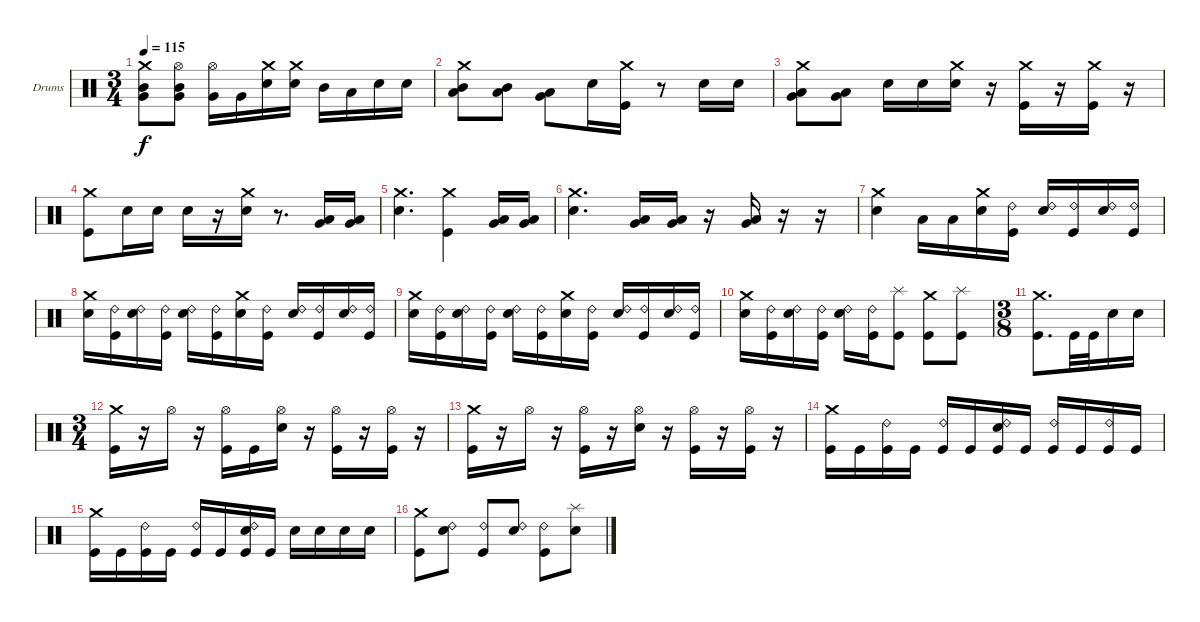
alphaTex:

\bracketExtendMode groupsimilarinstruments
\firstSystemTrackNameOrientation horizontal
\otherSystemsTrackNameOrientation horizontal
\track ("Drumkit" "Drums") {instrument percussion}
\staff {score}
\articulation defaults
\ts (3 4)
\tempo 115
\clef neutral
\ks c
("Crash medium (hit)" "Mid Tom (hit)" "Very Low Tom (hit)").8{dy f} ("Hi-Hat (open)" "Mid Tom (hit)" "Very Low Tom (hit)").8 ("Hi-Hat (open)" "Very Low Tom (hit)").16 "Very Low Tom (hit)".16 ("Crash medium (hit)" "Snare (hit) 2").16 ("Crash medium (hit)" "Snare (hit) 2").16 "Mid Tom (hit)".16 "Low Tom (hit)".16 "Snare (hit) 2".16 "Snare (hit) 2".16 |
("Crash medium (hit)" "Mid Tom (hit)" "Low Tom (hit)").8 ("Mid Tom (hit)" "Low Tom (hit)").8 ("Low Tom (hit)" "Very Low Tom (hit)").8 "Snare (hit) 2".16 ("Crash medium (hit)" "Kick (hit)").16 r.8 "Snare (hit) 2".16 "Snare (hit) 2".16 |
("Crash medium (hit)" "Low Tom (hit)" "Very Low Tom (hit)").8 ("Low Tom (hit)" "Very Low Tom (hit)").8 "Snare (hit) 2".16 "Snare (hit) 2".16 ("Crash medium (hit)" "Snare (hit) 2").16 r.16 ("Crash medium (hit)" "Kick (hit)").16 r.16 ("Crash medium (hit)" "Kick (hit)").16 r.16 |
("Crash medium (hit)" "Kick (hit)").8 "Snare (hit) 2".16 "Snare (hit) 2".16 "Snare (hit) 2".16 r.16 ("Crash medium (hit)" "Snare (hit) 2").16 r.8{d} ("Low Tom (hit)" "Very Low Tom (hit)").16 ("Low Tom (hit)" "Very Low Tom (hit)").16 |
("Crash medium (hit)" "Snare (hit) 2").4{d} ("Crash medium (hit)" "Kick (hit)").4 ("Low Tom (hit)" "Very Low Tom (hit)").16 ("Low Tom (hit)" "Very Low Tom (hit)").16 |
("Crash medium (hit)" "Snare (hit) 2").4{d} ("Low Tom (hit)" "Very Low Tom (hit)").16 ("Low Tom (hit)" "Very Low Tom (hit)").16 r.16 ("Low Tom (hit)" "Very Low Tom (hit)").16 r.16 r.16 |
("Crash medium (hit)" "Snare (hit) 2").4 "Low Tom (hit)".16 "Low Tom (hit)".16 ("Crash medium (hit)" "Snare (hit) 2").16 ("Ride (bell) 2" "Kick (hit)").16 ("Ride (bell) 2" "Snare (hit) 2").16 ("Ride (bell) 2" "Kick (hit)").16 ("Ride (bell) 2" "Snare (hit) 2").16 ("Ride (bell) 2" "Kick (hit)").16 |
("Crash medium (hit)" "Snare (hit) 2").16 ("Ride (bell) 2" "Kick (hit)").16 ("Ride (bell) 2" "Snare (hit) 2").16 ("Ride (bell) 2" "Kick (hit)").16 ("Ride (bell) 2" "Snare (hit) 2").16 ("Ride (bell) 2" "Kick (hit)").16 ("Crash medium (hit)" "Snare (hit) 2").16 ("Ride (bell) 2" "Kick (hit)").16 ("Ride (bell) 2" "Snare (hit) 2").16 ("Ride (bell) 2" "Kick (hit)").16 ("Ride (bell) 2" "Snare (hit) 2").16 ("Ride (bell) 2" "Kick (hit)").16 |
("Crash medium (hit)" "Snare (hit) 2").16 ("Ride (bell) 2" "Kick (hit)").16 ("Ride (bell) 2" "Snare (hit) 2").16 ("Ride (bell) 2" "Kick (hit)").16 ("Ride (bell) 2" "Snare (hit) 2").16 ("Ride (bell) 2" "Kick (hit)").16 ("Crash medium (hit)" "Snare (hit) 2").16 ("Ride (bell) 2" "Kick (hit)").16 ("Ride (bell) 2" "Snare (hit) 2").16 ("Ride (bell) 2" "Kick (hit)").16 ("Ride (bell) 2" "Snare (hit) 2").16 ("Ride (bell) 2" "Kick (hit)").16 |
("Crash medium (hit)" "Snare (hit) 2").16 ("Ride (bell) 2" "Kick (hit)").16 ("Ride (bell) 2" "Snare (hit) 2").16 ("Ride (bell) 2" "Kick (hit)").16 ("Ride (bell) 2" "Snare (hit) 2").16 ("Ride (bell) 2" "Kick (hit)").16 ("Splash (hit)" "Kick (hit)").8 ("Crash medium (hit)" "Kick (hit)").8 ("Splash (hit)" "Kick (hit)").8 |
\ts (3 8)
\beaming (8 3)
("Crash medium (hit)" "Kick (hit)").8{d} "Kick (hit)".32 "Kick (hit)".32 "Snare (hit) 2".16 "Snare (hit) 2".16 |
\ts (3 4)
\beaming (8 2 2 2)
("Crash medium (hit)" "Kick (hit)").16 r.16 "Hi-Hat (open)".16 r.16 ("Hi-Hat (open)" "Kick (hit)").16 "Kick (hit)".16 ("Hi-Hat (open)" "Snare (hit) 2").16 r.16 ("Hi-Hat (open)" "Kick (hit)").16 r.16 ("Hi-Hat (open)" "Kick (hit)").16 r.16 |
("Crash medium (hit)" "Kick (hit)").16 r.16 "Hi-Hat (open)".16 r.16 ("Hi-Hat (open)" "Kick (hit)").16 r.16 ("Hi-Hat (open)" "Snare (hit) 2").16 r.16 ("Hi-Hat (open)" "Kick (hit)").16 r.16 ("Hi-Hat (open)" "Kick (hit)").16 r.16 |
("Crash medium (hit)" "Kick (hit)").16 "Kick (hit)".16 ("Ride (bell) 2" "Kick (hit)").16 "Kick (hit)".16 ("Ride (bell) 2" "Kick (hit)").16 "Kick (hit)".16 ("Ride (bell) 2" "Snare (hit) 2" "Kick (hit)").16 "Kick (hit)".16 ("Ride (bell) 2" "Kick (hit)").16 "Kick (hit)".16 ("Ride (bell) 2" "Kick (hit)").16 "Kick (hit)".16 |
("Crash medium (hit)" "Kick (hit)").16 "Kick (hit)".16 ("Ride (bell) 2" "Kick (hit)").16 "Kick (hit)".16 ("Ride (bell) 2" "Kick (hit)").16 "Kick (hit)".16 ("Ride (bell) 2" "Snare (hit) 2" "Kick (hit)").16 "Kick (hit)".16 "Snare (hit) 2".16 "Snare (hit) 2".16 "Snare (hit) 2".16 "Snare (hit) 2".16 |
("Crash medium (hit)" "Kick (hit)").8 ("Ride (bell) 2" "Snare (hit) 2").8 ("Ride (bell) 2" "Kick (hit)").8 ("Ride (bell) 2" "Snare (hit) 2").8 ("Ride (bell) 2" "Kick (hit)").8 ("Splash (hit)" "Snare (hit) 2").8
